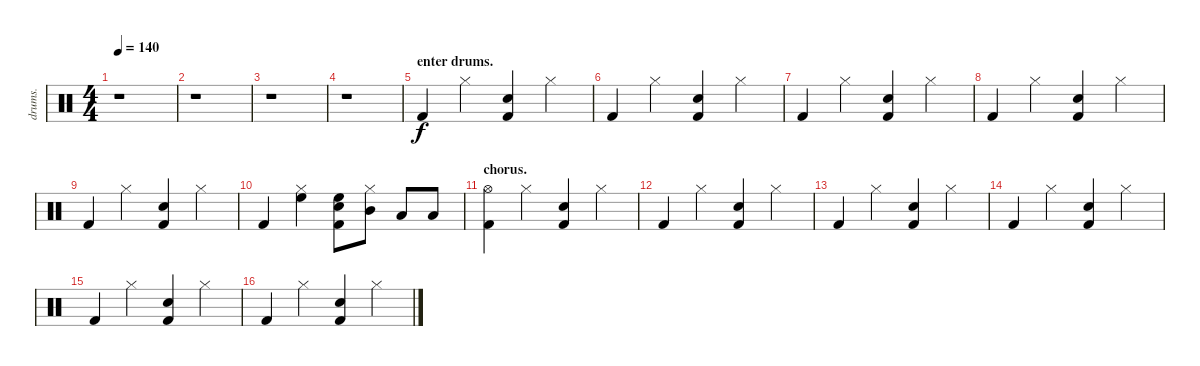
\track ("drums." "drums.") {instrument percussion}
\staff {score}
\articulation defaults
\ts (4 4)
\tempo 140
\clef neutral
\ks c
r.1{dy f} |
r.1 |
r.1 |
r.1 |
\section ("" "enter drums.")
"Kick (hit) 2".4 "Hi-Hat (closed)".4 ("Electric Snare (hit)" "Kick (hit) 2").4 "Hi-Hat (closed)".4 |
"Kick (hit) 2".4 "Hi-Hat (closed)".4 ("Electric Snare (hit)" "Kick (hit) 2").4 "Hi-Hat (closed)".4 |
"Kick (hit) 2".4 "Hi-Hat (closed)".4 ("Electric Snare (hit)" "Kick (hit) 2").4 "Hi-Hat (closed)".4 |
"Kick (hit) 2".4 "Hi-Hat (closed)".4 ("Electric Snare (hit)" "Kick (hit) 2").4 "Hi-Hat (closed)".4 |
"Kick (hit) 2".4 "Hi-Hat (closed)".4 ("Electric Snare (hit)" "Kick (hit) 2").4 "Hi-Hat (closed)".4 |
"Kick (hit) 2".4 ("High Floor Tom (hit)" "Hi-Hat (closed)").4 ("High Floor Tom (hit)" "Electric Snare (hit)" "Kick (hit) 2").8 ("Mid Tom (hit)" "Hi-Hat (closed)").8 "Low Tom (hit)".8 "Low Floor Tom (hit)".8 |
\section ("" "chorus.")
("Hi-Hat (open)" "Kick (hit) 2").4 "Hi-Hat (closed)".4 ("Electric Snare (hit)" "Kick (hit) 2").4 "Hi-Hat (closed)".4 |
"Kick (hit) 2".4 "Hi-Hat (closed)".4 ("Electric Snare (hit)" "Kick (hit) 2").4 "Hi-Hat (closed)".4 |
"Kick (hit) 2".4 "Hi-Hat (closed)".4 ("Electric Snare (hit)" "Kick (hit) 2").4 "Hi-Hat (closed)".4 |
"Kick (hit) 2".4 "Hi-Hat (closed)".4 ("Electric Snare (hit)" "Kick (hit) 2").4 "Hi-Hat (closed)".4 |
"Kick (hit) 2".4 "Hi-Hat (closed)".4 ("Electric Snare (hit)" "Kick (hit) 2").4 "Hi-Hat (closed)".4 |
"Kick (hit) 2".4 "Hi-Hat (closed)".4 ("Electric Snare (hit)" "Kick (hit) 2").4 "Hi-Hat (closed)".4
